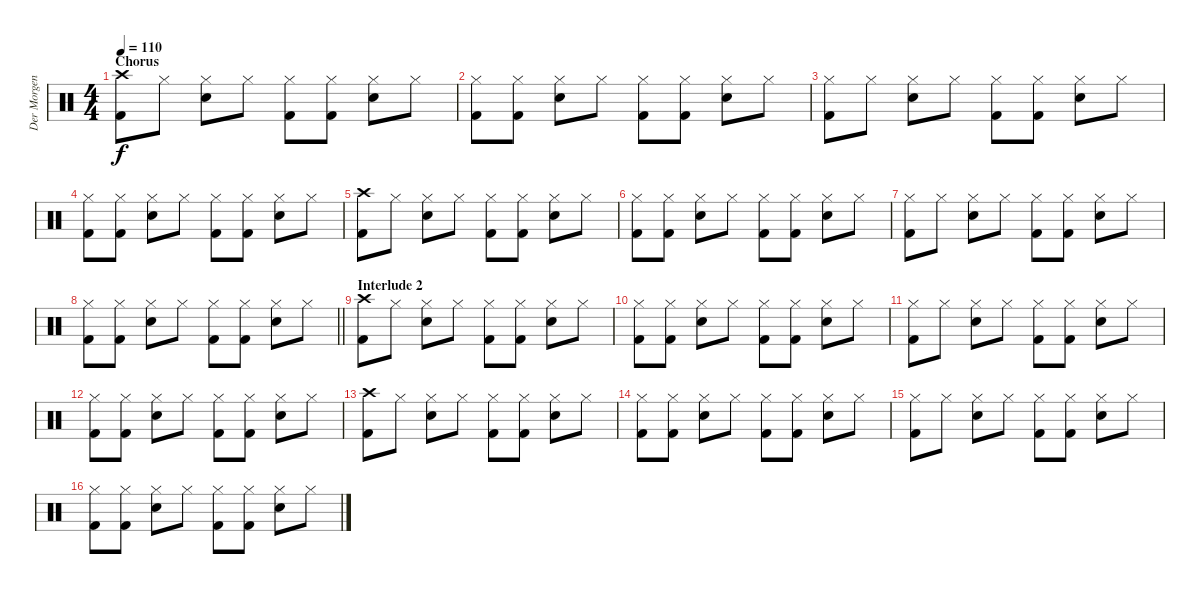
\track ("Der Morgenstern" "Der Morgen") {instrument percussion}
\staff {score}
\articulation defaults
\ts (4 4)
\section ("" "Chorus")
\tempo 110
\clef neutral
\ks c
("Crash high (hit)" "Kick (hit) 2").8{dy f} "Hi-Hat (closed)".8 ("Hi-Hat (closed)" "Snare (hit) 2").8 "Hi-Hat (closed)".8 ("Hi-Hat (closed)" "Kick (hit) 2").8 ("Hi-Hat (closed)" "Kick (hit) 2").8 ("Hi-Hat (closed)" "Snare (hit) 2").8 "Hi-Hat (closed)".8 |
("Hi-Hat (closed)" "Kick (hit) 2").8 ("Hi-Hat (closed)" "Kick (hit) 2").8 ("Hi-Hat (closed)" "Snare (hit) 2").8 "Hi-Hat (closed)".8 ("Hi-Hat (closed)" "Kick (hit) 2").8 ("Hi-Hat (closed)" "Kick (hit) 2").8 ("Hi-Hat (closed)" "Snare (hit) 2").8 "Hi-Hat (closed)".8 |
("Hi-Hat (closed)" "Kick (hit) 2").8 "Hi-Hat (closed)".8 ("Hi-Hat (closed)" "Snare (hit) 2").8 "Hi-Hat (closed)".8 ("Hi-Hat (closed)" "Kick (hit) 2").8 ("Hi-Hat (closed)" "Kick (hit) 2").8 ("Hi-Hat (closed)" "Snare (hit) 2").8 "Hi-Hat (closed)".8 |
("Hi-Hat (closed)" "Kick (hit) 2").8 ("Hi-Hat (closed)" "Kick (hit) 2").8 ("Hi-Hat (closed)" "Snare (hit) 2").8 "Hi-Hat (closed)".8 ("Hi-Hat (closed)" "Kick (hit) 2").8 ("Hi-Hat (closed)" "Kick (hit) 2").8 ("Hi-Hat (closed)" "Snare (hit) 2").8 "Hi-Hat (closed)".8 |
("Crash high (hit)" "Kick (hit) 2").8 "Hi-Hat (closed)".8 ("Hi-Hat (closed)" "Snare (hit) 2").8 "Hi-Hat (closed)".8 ("Hi-Hat (closed)" "Kick (hit) 2").8 ("Hi-Hat (closed)" "Kick (hit) 2").8 ("Hi-Hat (closed)" "Snare (hit) 2").8 "Hi-Hat (closed)".8 |
("Hi-Hat (closed)" "Kick (hit) 2").8 ("Hi-Hat (closed)" "Kick (hit) 2").8 ("Hi-Hat (closed)" "Snare (hit) 2").8 "Hi-Hat (closed)".8 ("Hi-Hat (closed)" "Kick (hit) 2").8 ("Hi-Hat (closed)" "Kick (hit) 2").8 ("Hi-Hat (closed)" "Snare (hit) 2").8 "Hi-Hat (closed)".8 |
("Hi-Hat (closed)" "Kick (hit) 2").8 "Hi-Hat (closed)".8 ("Hi-Hat (closed)" "Snare (hit) 2").8 "Hi-Hat (closed)".8 ("Hi-Hat (closed)" "Kick (hit) 2").8 ("Hi-Hat (closed)" "Kick (hit) 2").8 ("Hi-Hat (closed)" "Snare (hit) 2").8 "Hi-Hat (closed)".8 |
\barLineRight lightlight
("Hi-Hat (closed)" "Kick (hit) 2").8 ("Hi-Hat (closed)" "Kick (hit) 2").8 ("Hi-Hat (closed)" "Snare (hit) 2").8 "Hi-Hat (closed)".8 ("Hi-Hat (closed)" "Kick (hit) 2").8 ("Hi-Hat (closed)" "Kick (hit) 2").8 ("Hi-Hat (closed)" "Snare (hit) 2").8 "Hi-Hat (closed)".8 |
\section ("" "Interlude 2")
("Crash high (hit)" "Kick (hit) 2").8 "Hi-Hat (closed)".8 ("Hi-Hat (closed)" "Snare (hit) 2").8 "Hi-Hat (closed)".8 ("Hi-Hat (closed)" "Kick (hit) 2").8 ("Hi-Hat (closed)" "Kick (hit) 2").8 ("Hi-Hat (closed)" "Snare (hit) 2").8 "Hi-Hat (closed)".8 |
("Hi-Hat (closed)" "Kick (hit) 2").8 ("Hi-Hat (closed)" "Kick (hit) 2").8 ("Hi-Hat (closed)" "Snare (hit) 2").8 "Hi-Hat (closed)".8 ("Hi-Hat (closed)" "Kick (hit) 2").8 ("Hi-Hat (closed)" "Kick (hit) 2").8 ("Hi-Hat (closed)" "Snare (hit) 2").8 "Hi-Hat (closed)".8 |
("Hi-Hat (closed)" "Kick (hit) 2").8 "Hi-Hat (closed)".8 ("Hi-Hat (closed)" "Snare (hit) 2").8 "Hi-Hat (closed)".8 ("Hi-Hat (closed)" "Kick (hit) 2").8 ("Hi-Hat (closed)" "Kick (hit) 2").8 ("Hi-Hat (closed)" "Snare (hit) 2").8 "Hi-Hat (closed)".8 |
("Hi-Hat (closed)" "Kick (hit) 2").8 ("Hi-Hat (closed)" "Kick (hit) 2").8 ("Hi-Hat (closed)" "Snare (hit) 2").8 "Hi-Hat (closed)".8 ("Hi-Hat (closed)" "Kick (hit) 2").8 ("Hi-Hat (closed)" "Kick (hit) 2").8 ("Hi-Hat (closed)" "Snare (hit) 2").8 "Hi-Hat (closed)".8 |
("Crash high (hit)" "Kick (hit) 2").8 "Hi-Hat (closed)".8 ("Hi-Hat (closed)" "Snare (hit) 2").8 "Hi-Hat (closed)".8 ("Hi-Hat (closed)" "Kick (hit) 2").8 ("Hi-Hat (closed)" "Kick (hit) 2").8 ("Hi-Hat (closed)" "Snare (hit) 2").8 "Hi-Hat (closed)".8 |
("Hi-Hat (closed)" "Kick (hit) 2").8 ("Hi-Hat (closed)" "Kick (hit) 2").8 ("Hi-Hat (closed)" "Snare (hit) 2").8 "Hi-Hat (closed)".8 ("Hi-Hat (closed)" "Kick (hit) 2").8 ("Hi-Hat (closed)" "Kick (hit) 2").8 ("Hi-Hat (closed)" "Snare (hit) 2").8 "Hi-Hat (closed)".8 |
("Hi-Hat (closed)" "Kick (hit) 2").8 "Hi-Hat (closed)".8 ("Hi-Hat (closed)" "Snare (hit) 2").8 "Hi-Hat (closed)".8 ("Hi-Hat (closed)" "Kick (hit) 2").8 ("Hi-Hat (closed)" "Kick (hit) 2").8 ("Hi-Hat (closed)" "Snare (hit) 2").8 "Hi-Hat (closed)".8 |
("Hi-Hat (closed)" "Kick (hit) 2").8 ("Hi-Hat (closed)" "Kick (hit) 2").8 ("Hi-Hat (closed)" "Snare (hit) 2").8 "Hi-Hat (closed)".8 ("Hi-Hat (closed)" "Kick (hit) 2").8 ("Hi-Hat (closed)" "Kick (hit) 2").8 ("Hi-Hat (closed)" "Snare (hit) 2").8 "Hi-Hat (closed)".8
